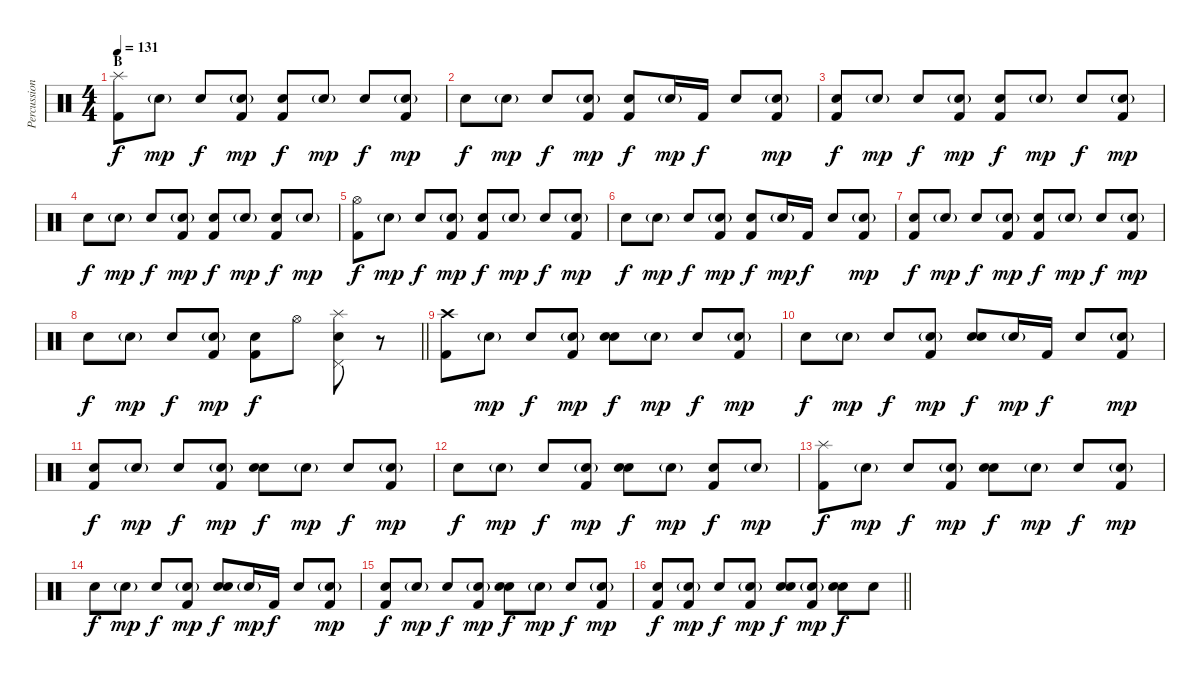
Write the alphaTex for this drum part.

\track ("Percussion" "Percussion") {instrument percussion}
\staff {score}
\articulation defaults
\ts (4 4)
\section ("" "B")
\tempo 131
\clef neutral
\ks c
("Splash (hit)" "Kick (hit) 2").8{dy f} "Snare (hit)"{g}.8{dy mp} "Snare (hit)".8{dy f} ("Snare (hit)"{g} "Kick (hit) 2").8{dy mp} ("Snare (hit)" "Kick (hit) 2").8{dy f} "Snare (hit)"{g}.8{dy mp} "Snare (hit)".8{dy f} ("Snare (hit)"{g} "Kick (hit) 2").8{dy mp} |
"Snare (hit)".8{dy f} "Snare (hit)"{g}.8{dy mp} "Snare (hit)".8{dy f} ("Snare (hit)"{g} "Kick (hit) 2").8{dy mp} ("Snare (hit)" "Kick (hit) 2").8{dy f} "Snare (hit)"{g}.16{dy mp} "Kick (hit) 2".16{dy f} "Snare (hit)".8 ("Snare (hit)"{g} "Kick (hit) 2").8{dy mp} |
("Snare (hit)" "Kick (hit) 2").8{dy f} "Snare (hit)"{g}.8{dy mp} "Snare (hit)".8{dy f} ("Snare (hit)"{g} "Kick (hit) 2").8{dy mp} ("Snare (hit)" "Kick (hit) 2").8{dy f} "Snare (hit)"{g}.8{dy mp} "Snare (hit)".8{dy f} ("Snare (hit)"{g} "Kick (hit) 2").8{dy mp} |
"Snare (hit)".8{dy f} "Snare (hit)"{g}.8{dy mp} "Snare (hit)".8{dy f} ("Snare (hit)"{g} "Kick (hit) 2").8{dy mp} ("Snare (hit)" "Kick (hit) 2").8{dy f} "Snare (hit)"{g}.8{dy mp} ("Snare (hit)" "Kick (hit) 2").8{dy f} "Snare (hit)"{g}.8{dy mp} |
("Hi-Hat (open)" "Kick (hit) 2").8{dy f} "Snare (hit)"{g}.8{dy mp} "Snare (hit)".8{dy f} ("Snare (hit)"{g} "Kick (hit) 2").8{dy mp} ("Snare (hit)" "Kick (hit) 2").8{dy f} "Snare (hit)"{g}.8{dy mp} "Snare (hit)".8{dy f} ("Snare (hit)"{g} "Kick (hit) 2").8{dy mp} |
"Snare (hit)".8{dy f} "Snare (hit)"{g}.8{dy mp} "Snare (hit)".8{dy f} ("Snare (hit)"{g} "Kick (hit) 2").8{dy mp} ("Snare (hit)" "Kick (hit) 2").8{dy f} "Snare (hit)"{g}.16{dy mp} "Kick (hit) 2".16{dy f} "Snare (hit)".8 ("Snare (hit)"{g} "Kick (hit) 2").8{dy mp} |
("Snare (hit)" "Kick (hit) 2").8{dy f} "Snare (hit)"{g}.8{dy mp} "Snare (hit)".8{dy f} ("Snare (hit)"{g} "Kick (hit) 2").8{dy mp} ("Snare (hit)" "Kick (hit) 2").8{dy f} "Snare (hit)"{g}.8{dy mp} "Snare (hit)".8{dy f} ("Snare (hit)"{g} "Kick (hit) 2").8{dy mp} |
\barLineRight lightlight "Snare (hit)".8{dy f} "Snare (hit)"{g}.8{dy mp} "Snare (hit)".8{dy f}
("Snare (hit)"{g} "Kick (hit) 2").8{dy mp} ("Snare (hit)" "Kick (hit) 2").8{dy f} "Hi-Hat (open)".8 ("Splash (hit)" "Pedal Hi-Hat (hit)" "Snare (hit) 2").8 r.8 |
("Crash high (hit)" "Kick (hit) 2").8 "Snare (hit)"{g}.8{dy mp} "Snare (hit)".8{dy f} ("Snare (hit)"{g} "Kick (hit) 2").8{dy mp} ("Snare (hit)" "Snare (hit) 2").8{dy f} "Snare (hit)"{g}.8{dy mp} "Snare (hit)".8{dy f} ("Snare (hit)"{g} "Kick (hit) 2").8{dy mp} |
"Snare (hit)".8{dy f} "Snare (hit)"{g}.8{dy mp} "Snare (hit)".8{dy f} ("Snare (hit)"{g} "Kick (hit) 2").8{dy mp} ("Snare (hit)" "Snare (hit) 2").8{dy f} "Snare (hit)"{g}.16{dy mp} "Kick (hit) 2".16{dy f} "Snare (hit)".8 ("Snare (hit)"{g} "Kick (hit) 2").8{dy mp} |
("Snare (hit)" "Kick (hit) 2").8{dy f} "Snare (hit)"{g}.8{dy mp} "Snare (hit)".8{dy f} ("Snare (hit)"{g} "Kick (hit) 2").8{dy mp} ("Snare (hit)" "Snare (hit) 2").8{dy f} "Snare (hit)"{g}.8{dy mp} "Snare (hit)".8{dy f} ("Snare (hit)"{g} "Kick (hit) 2").8{dy mp} |
"Snare (hit)".8{dy f} "Snare (hit)"{g}.8{dy mp} "Snare (hit)".8{dy f} ("Snare (hit)"{g} "Kick (hit) 2").8{dy mp} ("Snare (hit)" "Snare (hit) 2").8{dy f} "Snare (hit)"{g}.8{dy mp} ("Snare (hit)" "Kick (hit) 2").8{dy f} "Snare (hit)"{g}.8{dy mp} |
("Splash (hit)" "Kick (hit) 2").8{dy f} "Snare (hit)"{g}.8{dy mp} "Snare (hit)".8{dy f} ("Snare (hit)"{g} "Kick (hit) 2").8{dy mp} ("Snare (hit)" "Snare (hit) 2").8{dy f} "Snare (hit)"{g}.8{dy mp} "Snare (hit)".8{dy f} ("Snare (hit)"{g} "Kick (hit) 2").8{dy mp} |
"Snare (hit)".8{dy f} "Snare (hit)"{g}.8{dy mp} "Snare (hit)".8{dy f} ("Snare (hit)"{g} "Kick (hit) 2").8{dy mp} ("Snare (hit)" "Snare (hit) 2").8{dy f} "Snare (hit)"{g}.16{dy mp} "Kick (hit) 2".16{dy f} "Snare (hit)".8 ("Snare (hit)"{g} "Kick (hit) 2").8{dy mp} |
("Snare (hit)" "Kick (hit) 2").8{dy f} "Snare (hit)"{g}.8{dy mp} "Snare (hit)".8{dy f} ("Snare (hit)"{g} "Kick (hit) 2").8{dy mp} ("Snare (hit)" "Snare (hit) 2").8{dy f} "Snare (hit)"{g}.8{dy mp} "Snare (hit)".8{dy f} ("Snare (hit)"{g} "Kick (hit) 2").8{dy mp} |
\barLineRight lightlight
("Snare (hit)" "Kick (hit) 2").8{dy f} ("Snare (hit)"{g} "Kick (hit) 2").8{dy mp} "Snare (hit)".8{dy f} ("Snare (hit)"{g} "Kick (hit) 2").8{dy mp} ("Snare (hit)" "Snare (hit) 2").8{dy f} ("Snare (hit)"{g} "Kick (hit) 2").8{dy mp} ("Snare (hit)" "Snare (hit) 2").8{dy f} "Snare (hit)".8
